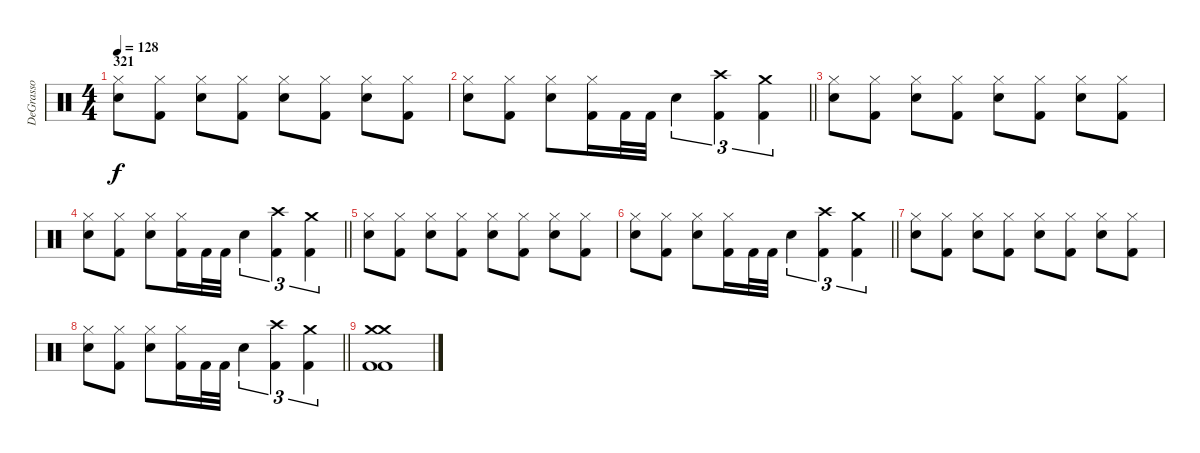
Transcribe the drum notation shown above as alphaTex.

\track ("DeGrasso" "DeGrasso") {instrument percussion}
\staff {score}
\articulation defaults
\ts (4 4)
\section ("" "321")
\tempo 128
\clef neutral
\ks c
("Hi-Hat (closed)" "Electric Snare (hit)").8{dy f} ("Hi-Hat (closed)" "Kick (hit) 2").8 ("Hi-Hat (closed)" "Electric Snare (hit)").8 ("Hi-Hat (closed)" "Kick (hit) 2").8 ("Hi-Hat (closed)" "Electric Snare (hit)").8 ("Hi-Hat (closed)" "Kick (hit) 2").8 ("Hi-Hat (closed)" "Electric Snare (hit)").8 ("Hi-Hat (closed)" "Kick (hit) 2").8 |
\barLineRight lightlight
("Hi-Hat (closed)" "Electric Snare (hit)").8 ("Hi-Hat (closed)" "Kick (hit) 2").8 ("Hi-Hat (closed)" "Electric Snare (hit)").8 ("Hi-Hat (closed)" "Kick (hit) 2").16 "Kick (hit) 2".32 "Kick (hit) 2".32 "Electric Snare (hit)".4{tu (3 2)} ("Crash high (hit)" "Kick (hit) 2").4{tu (3 2)} ("Crash medium (hit)" "Kick (hit) 2").4{tu (3 2)} |
("Hi-Hat (closed)" "Electric Snare (hit)").8 ("Hi-Hat (closed)" "Kick (hit) 2").8 ("Hi-Hat (closed)" "Electric Snare (hit)").8 ("Hi-Hat (closed)" "Kick (hit) 2").8 ("Hi-Hat (closed)" "Electric Snare (hit)").8 ("Hi-Hat (closed)" "Kick (hit) 2").8 ("Hi-Hat (closed)" "Electric Snare (hit)").8 ("Hi-Hat (closed)" "Kick (hit) 2").8 |
\barLineRight lightlight
("Hi-Hat (closed)" "Electric Snare (hit)").8 ("Hi-Hat (closed)" "Kick (hit) 2").8 ("Hi-Hat (closed)" "Electric Snare (hit)").8 ("Hi-Hat (closed)" "Kick (hit) 2").16 "Kick (hit) 2".32 "Kick (hit) 2".32 "Electric Snare (hit)".4{tu (3 2)} ("Crash high (hit)" "Kick (hit) 2").4{tu (3 2)} ("Crash medium (hit)" "Kick (hit) 2").4{tu (3 2)} |
("Hi-Hat (closed)" "Electric Snare (hit)").8 ("Hi-Hat (closed)" "Kick (hit) 2").8 ("Hi-Hat (closed)" "Electric Snare (hit)").8 ("Hi-Hat (closed)" "Kick (hit) 2").8 ("Hi-Hat (closed)" "Electric Snare (hit)").8 ("Hi-Hat (closed)" "Kick (hit) 2").8 ("Hi-Hat (closed)" "Electric Snare (hit)").8 ("Hi-Hat (closed)" "Kick (hit) 2").8 |
\barLineRight lightlight
("Hi-Hat (closed)" "Electric Snare (hit)").8 ("Hi-Hat (closed)" "Kick (hit) 2").8 ("Hi-Hat (closed)" "Electric Snare (hit)").8 ("Hi-Hat (closed)" "Kick (hit) 2").16 "Kick (hit) 2".32 "Kick (hit) 2".32 "Electric Snare (hit)".4{tu (3 2)} ("Crash high (hit)" "Kick (hit) 2").4{tu (3 2)} ("Crash medium (hit)" "Kick (hit) 2").4{tu (3 2)} |
("Hi-Hat (closed)" "Electric Snare (hit)").8 ("Hi-Hat (closed)" "Kick (hit) 2").8 ("Hi-Hat (closed)" "Electric Snare (hit)").8 ("Hi-Hat (closed)" "Kick (hit) 2").8 ("Hi-Hat (closed)" "Electric Snare (hit)").8 ("Hi-Hat (closed)" "Kick (hit) 2").8 ("Hi-Hat (closed)" "Electric Snare (hit)").8 ("Hi-Hat (closed)" "Kick (hit) 2").8 |
\barLineRight lightlight
("Hi-Hat (closed)" "Electric Snare (hit)").8 ("Hi-Hat (closed)" "Kick (hit) 2").8 ("Hi-Hat (closed)" "Electric Snare (hit)").8 ("Hi-Hat (closed)" "Kick (hit) 2").16 "Kick (hit) 2".32 "Kick (hit) 2".32 "Electric Snare (hit)".4{tu (3 2)} ("Crash high (hit)" "Kick (hit) 2").4{tu (3 2)} ("Crash medium (hit)" "Kick (hit) 2").4{tu (3 2)} |
("Crash medium (hit)" "Crash medium (hit)" "Kick (hit) 2" "Kick (hit) 2").1
